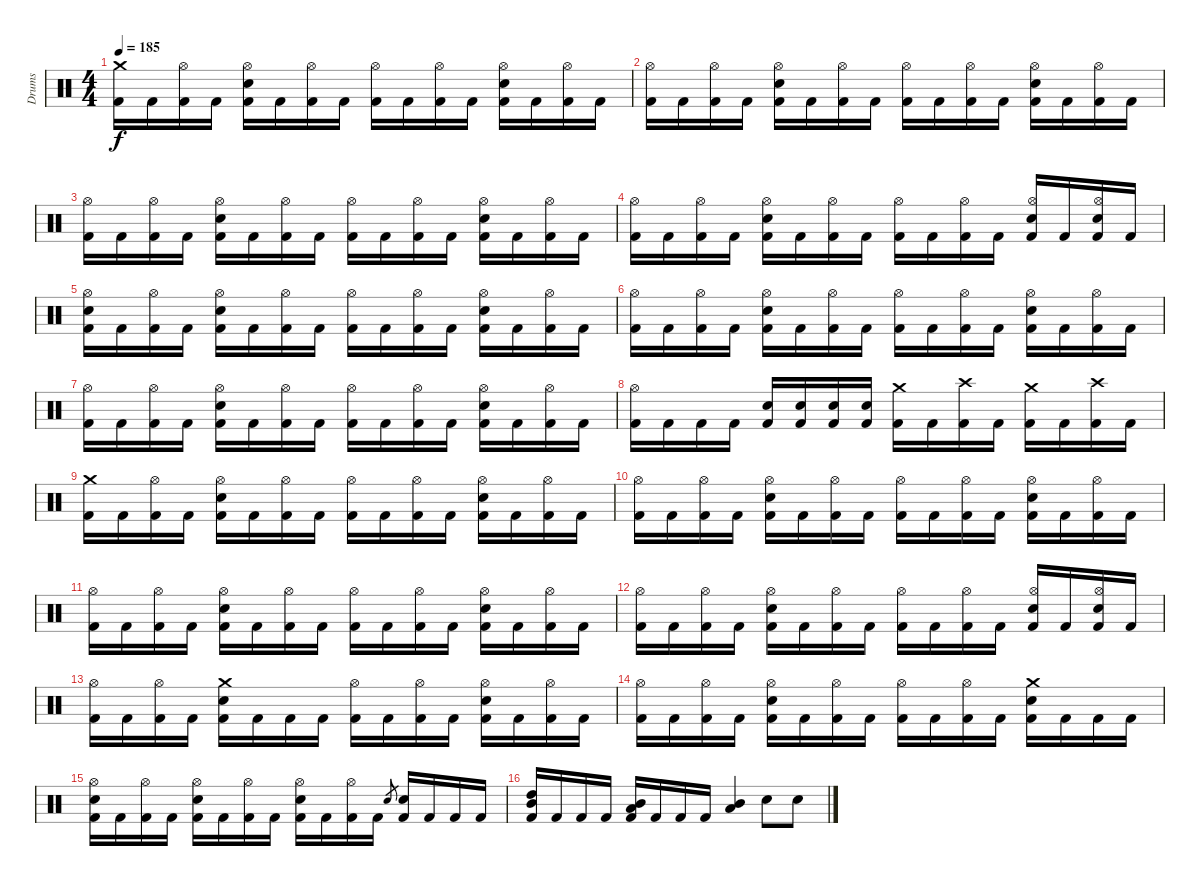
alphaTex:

\track ("Drums" "Drums") {instrument percussion}
\staff {score}
\articulation defaults
\ts (4 4)
\tempo 185
\clef neutral
\ks c
("Crash medium (hit)" "Kick (hit) 2").16{dy f} "Kick (hit) 2".16 ("Hi-Hat (open)" "Kick (hit) 2").16 "Kick (hit) 2".16 ("Hi-Hat (open)" "Electric Snare (hit)" "Kick (hit) 2").16 "Kick (hit) 2".16 ("Hi-Hat (open)" "Kick (hit) 2").16 "Kick (hit) 2".16 ("Hi-Hat (open)" "Kick (hit) 2").16 "Kick (hit) 2".16 ("Hi-Hat (open)" "Kick (hit) 2").16 "Kick (hit) 2".16 ("Hi-Hat (open)" "Electric Snare (hit)" "Kick (hit) 2").16 "Kick (hit) 2".16 ("Hi-Hat (open)" "Kick (hit) 2").16 "Kick (hit) 2".16 |
("Hi-Hat (open)" "Kick (hit) 2").16 "Kick (hit) 2".16 ("Hi-Hat (open)" "Kick (hit) 2").16 "Kick (hit) 2".16 ("Hi-Hat (open)" "Electric Snare (hit)" "Kick (hit) 2").16 "Kick (hit) 2".16 ("Hi-Hat (open)" "Kick (hit) 2").16 "Kick (hit) 2".16 ("Hi-Hat (open)" "Kick (hit) 2").16 "Kick (hit) 2".16 ("Hi-Hat (open)" "Kick (hit) 2").16 "Kick (hit) 2".16 ("Hi-Hat (open)" "Electric Snare (hit)" "Kick (hit) 2").16 "Kick (hit) 2".16 ("Hi-Hat (open)" "Kick (hit) 2").16 "Kick (hit) 2".16 |
("Hi-Hat (open)" "Kick (hit) 2").16 "Kick (hit) 2".16 ("Hi-Hat (open)" "Kick (hit) 2").16 "Kick (hit) 2".16 ("Hi-Hat (open)" "Electric Snare (hit)" "Kick (hit) 2").16 "Kick (hit) 2".16 ("Hi-Hat (open)" "Kick (hit) 2").16 "Kick (hit) 2".16 ("Hi-Hat (open)" "Kick (hit) 2").16 "Kick (hit) 2".16 ("Hi-Hat (open)" "Kick (hit) 2").16 "Kick (hit) 2".16 ("Hi-Hat (open)" "Electric Snare (hit)" "Kick (hit) 2").16 "Kick (hit) 2".16 ("Hi-Hat (open)" "Kick (hit) 2").16 "Kick (hit) 2".16 |
("Hi-Hat (open)" "Kick (hit) 2").16 "Kick (hit) 2".16 ("Hi-Hat (open)" "Kick (hit) 2").16 "Kick (hit) 2".16 ("Hi-Hat (open)" "Electric Snare (hit)" "Kick (hit) 2").16 "Kick (hit) 2".16 ("Hi-Hat (open)" "Kick (hit) 2").16 "Kick (hit) 2".16 ("Hi-Hat (open)" "Kick (hit) 2").16 "Kick (hit) 2".16 ("Hi-Hat (open)" "Kick (hit) 2").16 "Kick (hit) 2".16 ("Hi-Hat (open)" "Electric Snare (hit)" "Kick (hit) 2").16 "Kick (hit) 2".16 ("Hi-Hat (open)" "Electric Snare (hit)" "Kick (hit) 2").16 "Kick (hit) 2".16 |
("Hi-Hat (open)" "Electric Snare (hit)" "Kick (hit) 2").16 "Kick (hit) 2".16 ("Hi-Hat (open)" "Kick (hit) 2").16 "Kick (hit) 2".16 ("Hi-Hat (open)" "Electric Snare (hit)" "Kick (hit) 2").16 "Kick (hit) 2".16 ("Hi-Hat (open)" "Kick (hit) 2").16 "Kick (hit) 2".16 ("Hi-Hat (open)" "Kick (hit) 2").16 "Kick (hit) 2".16 ("Hi-Hat (open)" "Kick (hit) 2").16 "Kick (hit) 2".16 ("Hi-Hat (open)" "Electric Snare (hit)" "Kick (hit) 2").16 "Kick (hit) 2".16 ("Hi-Hat (open)" "Kick (hit) 2").16 "Kick (hit) 2".16 |
("Hi-Hat (open)" "Kick (hit) 2").16 "Kick (hit) 2".16 ("Hi-Hat (open)" "Kick (hit) 2").16 "Kick (hit) 2".16 ("Hi-Hat (open)" "Electric Snare (hit)" "Kick (hit) 2").16 "Kick (hit) 2".16 ("Hi-Hat (open)" "Kick (hit) 2").16 "Kick (hit) 2".16 ("Hi-Hat (open)" "Kick (hit) 2").16 "Kick (hit) 2".16 ("Hi-Hat (open)" "Kick (hit) 2").16 "Kick (hit) 2".16 ("Hi-Hat (open)" "Electric Snare (hit)" "Kick (hit) 2").16 "Kick (hit) 2".16 ("Hi-Hat (open)" "Kick (hit) 2").16 "Kick (hit) 2".16 |
("Hi-Hat (open)" "Kick (hit) 2").16 "Kick (hit) 2".16 ("Hi-Hat (open)" "Kick (hit) 2").16 "Kick (hit) 2".16 ("Hi-Hat (open)" "Electric Snare (hit)" "Kick (hit) 2").16 "Kick (hit) 2".16 ("Hi-Hat (open)" "Kick (hit) 2").16 "Kick (hit) 2".16 ("Hi-Hat (open)" "Kick (hit) 2").16 "Kick (hit) 2".16 ("Hi-Hat (open)" "Kick (hit) 2").16 "Kick (hit) 2".16 ("Hi-Hat (open)" "Electric Snare (hit)" "Kick (hit) 2").16 "Kick (hit) 2".16 ("Hi-Hat (open)" "Kick (hit) 2").16 "Kick (hit) 2".16 |
("Hi-Hat (open)" "Kick (hit) 2").16 "Kick (hit) 2".16 "Kick (hit) 2".16 "Kick (hit) 2".16 ("Electric Snare (hit)" "Kick (hit) 2").16 ("Electric Snare (hit)" "Kick (hit) 2").16 ("Electric Snare (hit)" "Kick (hit) 2").16 ("Electric Snare (hit)" "Kick (hit) 2").16 ("Crash medium (hit)" "Kick (hit) 2").16 "Kick (hit) 2".16 ("Crash high (hit)" "Kick (hit) 2").16 "Kick (hit) 2".16 ("Crash medium (hit)" "Kick (hit) 2").16 "Kick (hit) 2".16 ("Crash high (hit)" "Kick (hit) 2").16 "Kick (hit) 2".16 |
("Crash medium (hit)" "Kick (hit) 2").16 "Kick (hit) 2".16 ("Hi-Hat (open)" "Kick (hit) 2").16 "Kick (hit) 2".16 ("Hi-Hat (open)" "Electric Snare (hit)" "Kick (hit) 2").16 "Kick (hit) 2".16 ("Hi-Hat (open)" "Kick (hit) 2").16 "Kick (hit) 2".16 ("Hi-Hat (open)" "Kick (hit) 2").16 "Kick (hit) 2".16 ("Hi-Hat (open)" "Kick (hit) 2").16 "Kick (hit) 2".16 ("Hi-Hat (open)" "Electric Snare (hit)" "Kick (hit) 2").16 "Kick (hit) 2".16 ("Hi-Hat (open)" "Kick (hit) 2").16 "Kick (hit) 2".16 |
("Hi-Hat (open)" "Kick (hit) 2").16 "Kick (hit) 2".16 ("Hi-Hat (open)" "Kick (hit) 2").16 "Kick (hit) 2".16 ("Hi-Hat (open)" "Electric Snare (hit)" "Kick (hit) 2").16 "Kick (hit) 2".16 ("Hi-Hat (open)" "Kick (hit) 2").16 "Kick (hit) 2".16 ("Hi-Hat (open)" "Kick (hit) 2").16 "Kick (hit) 2".16 ("Hi-Hat (open)" "Kick (hit) 2").16 "Kick (hit) 2".16 ("Hi-Hat (open)" "Electric Snare (hit)" "Kick (hit) 2").16 "Kick (hit) 2".16 ("Hi-Hat (open)" "Kick (hit) 2").16 "Kick (hit) 2".16 |
("Hi-Hat (open)" "Kick (hit) 2").16 "Kick (hit) 2".16 ("Hi-Hat (open)" "Kick (hit) 2").16 "Kick (hit) 2".16 ("Hi-Hat (open)" "Electric Snare (hit)" "Kick (hit) 2").16 "Kick (hit) 2".16 ("Hi-Hat (open)" "Kick (hit) 2").16 "Kick (hit) 2".16 ("Hi-Hat (open)" "Kick (hit) 2").16 "Kick (hit) 2".16 ("Hi-Hat (open)" "Kick (hit) 2").16 "Kick (hit) 2".16 ("Hi-Hat (open)" "Electric Snare (hit)" "Kick (hit) 2").16 "Kick (hit) 2".16 ("Hi-Hat (open)" "Kick (hit) 2").16 "Kick (hit) 2".16 |
("Hi-Hat (open)" "Kick (hit) 2").16 "Kick (hit) 2".16 ("Hi-Hat (open)" "Kick (hit) 2").16 "Kick (hit) 2".16 ("Hi-Hat (open)" "Electric Snare (hit)" "Kick (hit) 2").16 "Kick (hit) 2".16 ("Hi-Hat (open)" "Kick (hit) 2").16 "Kick (hit) 2".16 ("Hi-Hat (open)" "Kick (hit) 2").16 "Kick (hit) 2".16 ("Hi-Hat (open)" "Kick (hit) 2").16 "Kick (hit) 2".16 ("Hi-Hat (open)" "Electric Snare (hit)" "Kick (hit) 2").16 "Kick (hit) 2".16 ("Hi-Hat (open)" "Electric Snare (hit)" "Kick (hit) 2").16 "Kick (hit) 2".16 |
("Hi-Hat (open)" "Kick (hit) 2").16 "Kick (hit) 2".16 ("Hi-Hat (open)" "Kick (hit) 2").16 "Kick (hit) 2".16 ("Crash medium (hit)" "Electric Snare (hit)" "Kick (hit) 2").16 "Kick (hit) 2".16 "Kick (hit) 2".16 "Kick (hit) 2".16 ("Hi-Hat (open)" "Kick (hit) 2").16 "Kick (hit) 2".16 ("Hi-Hat (open)" "Kick (hit) 2").16 "Kick (hit) 2".16 ("Hi-Hat (open)" "Electric Snare (hit)" "Kick (hit) 2").16 "Kick (hit) 2".16 ("Hi-Hat (open)" "Kick (hit) 2").16 "Kick (hit) 2".16 |
("Hi-Hat (open)" "Kick (hit) 2").16 "Kick (hit) 2".16 ("Hi-Hat (open)" "Kick (hit) 2").16 "Kick (hit) 2".16 ("Hi-Hat (open)" "Electric Snare (hit)" "Kick (hit) 2").16 "Kick (hit) 2".16 ("Hi-Hat (open)" "Kick (hit) 2").16 "Kick (hit) 2".16 ("Hi-Hat (open)" "Kick (hit) 2").16 "Kick (hit) 2".16 ("Hi-Hat (open)" "Kick (hit) 2").16 "Kick (hit) 2".16 ("Crash medium (hit)" "Electric Snare (hit)" "Kick (hit) 2").16 "Kick (hit) 2".16 "Kick (hit) 2".16 "Kick (hit) 2".16 |
("Hi-Hat (open)" "Electric Snare (hit)" "Kick (hit) 2").16 "Kick (hit) 2".16 ("Hi-Hat (open)" "Kick (hit) 2").16 "Kick (hit) 2".16 ("Hi-Hat (open)" "Electric Snare (hit)" "Kick (hit) 2").16 "Kick (hit) 2".16 ("Hi-Hat (open)" "Kick (hit) 2").16 "Kick (hit) 2".16 ("Hi-Hat (open)" "Electric Snare (hit)" "Kick (hit) 2").16 "Kick (hit) 2".16 ("Hi-Hat (open)" "Kick (hit) 2").16 "Kick (hit) 2".16 "Electric Snare (hit)".8{gr} ("Electric Snare (hit)" "Kick (hit) 2").16 "Kick (hit) 2".16 "Kick (hit) 2".16 "Kick (hit) 2".16 |
("High Tom (hit)" "Mid Tom (hit)" "Kick (hit) 2").16 "Kick (hit) 2".16 "Kick (hit) 2".16 "Kick (hit) 2".16 ("Mid Tom (hit)" "Low Tom (hit)" "Kick (hit) 2").16 "Kick (hit) 2".16 "Kick (hit) 2".16 "Kick (hit) 2".16 ("Mid Tom (hit)" "Low Tom (hit)").4 "Electric Snare (hit)".8 "Electric Snare (hit)".8
